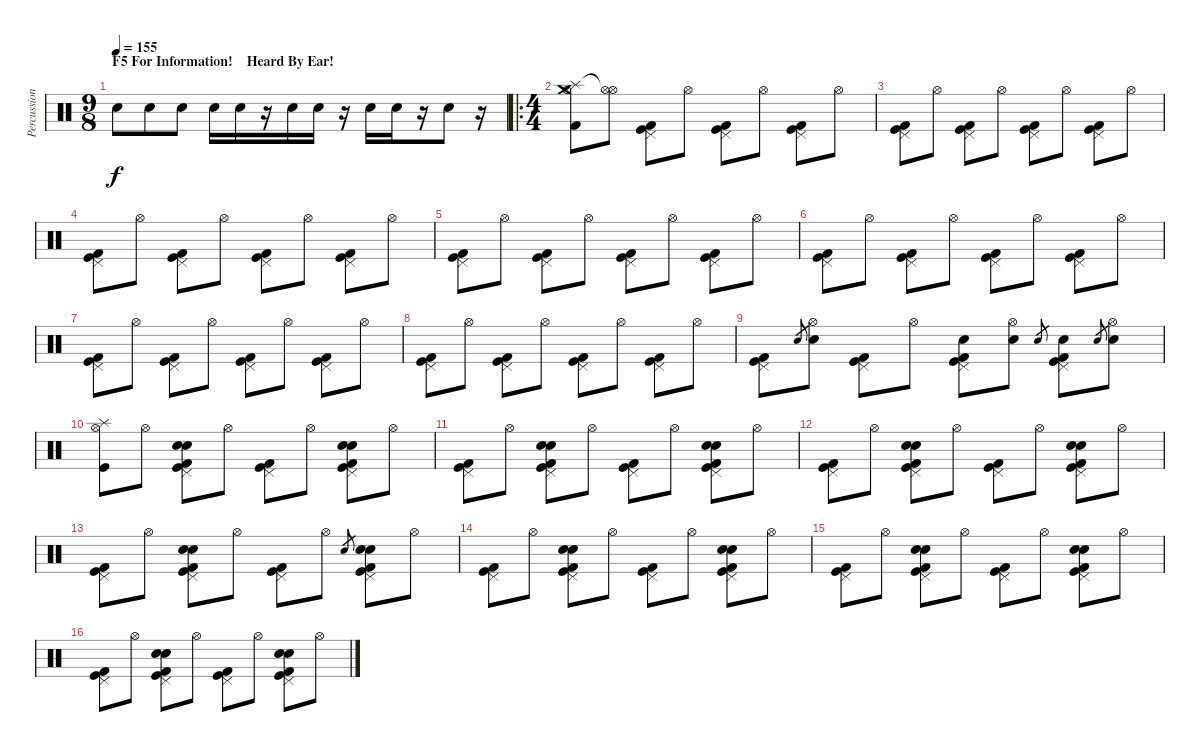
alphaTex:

\track ("Percussion" "Percussion") {instrument percussion}
\staff {score}
\articulation defaults
\ts (9 8)
\section ("" "F5 For Information!    Heard By Ear!")
\tempo 155
\clef neutral
\ks c "Snare (hit) 2".8{dy f} "Snare (hit) 2".8 "Snare (hit) 2".8 "Snare (hit) 2".16 "Snare (hit) 2".16
r.16 "Snare (hit) 2".16 "Snare (hit) 2".16 r.16 "Snare (hit) 2".16 "Snare (hit) 2".16 r.16 "Snare (hit) 2".8 r.16 |
\ro
\ts (4 4)
("Splash (hit)" "Kick (hit) 2" "Hi-Hat (open)" "Crash medium (hit)").8 ("Hi-Hat (open)"{t} "Hi-Hat (open)").8 ("Pedal Hi-Hat (hit)" "Kick (hit)" "Kick (hit) 2").8 "Hi-Hat (open)".8 ("Pedal Hi-Hat (hit)" "Kick (hit)" "Kick (hit) 2").8 "Hi-Hat (open)".8 ("Pedal Hi-Hat (hit)" "Kick (hit)" "Kick (hit) 2").8 "Hi-Hat (open)".8 |
("Pedal Hi-Hat (hit)" "Kick (hit)" "Kick (hit) 2").8 "Hi-Hat (open)".8 ("Pedal Hi-Hat (hit)" "Kick (hit)" "Kick (hit) 2").8 "Hi-Hat (open)".8 ("Pedal Hi-Hat (hit)" "Kick (hit)" "Kick (hit) 2").8 "Hi-Hat (open)".8 ("Pedal Hi-Hat (hit)" "Kick (hit)" "Kick (hit) 2").8 "Hi-Hat (open)".8 |
("Pedal Hi-Hat (hit)" "Kick (hit)" "Kick (hit) 2").8 "Hi-Hat (open)".8 ("Pedal Hi-Hat (hit)" "Kick (hit)" "Kick (hit) 2").8 "Hi-Hat (open)".8 ("Pedal Hi-Hat (hit)" "Kick (hit)" "Kick (hit) 2").8 "Hi-Hat (open)".8 ("Pedal Hi-Hat (hit)" "Kick (hit)" "Kick (hit) 2").8 "Hi-Hat (open)".8 |
("Pedal Hi-Hat (hit)" "Kick (hit)" "Kick (hit) 2").8 "Hi-Hat (open)".8 ("Pedal Hi-Hat (hit)" "Kick (hit)" "Kick (hit) 2").8 "Hi-Hat (open)".8 ("Pedal Hi-Hat (hit)" "Kick (hit)" "Kick (hit) 2").8 "Hi-Hat (open)".8 ("Pedal Hi-Hat (hit)" "Kick (hit)" "Kick (hit) 2").8 "Hi-Hat (open)".8 |
("Pedal Hi-Hat (hit)" "Kick (hit)" "Kick (hit) 2").8 "Hi-Hat (open)".8 ("Pedal Hi-Hat (hit)" "Kick (hit)" "Kick (hit) 2").8 "Hi-Hat (open)".8 ("Pedal Hi-Hat (hit)" "Kick (hit)" "Kick (hit) 2").8 "Hi-Hat (open)".8 ("Pedal Hi-Hat (hit)" "Kick (hit)" "Kick (hit) 2").8 "Hi-Hat (open)".8 |
("Pedal Hi-Hat (hit)" "Kick (hit)" "Kick (hit) 2").8 "Hi-Hat (open)".8 ("Pedal Hi-Hat (hit)" "Kick (hit)" "Kick (hit) 2").8 "Hi-Hat (open)".8 ("Pedal Hi-Hat (hit)" "Kick (hit)" "Kick (hit) 2").8 "Hi-Hat (open)".8 ("Pedal Hi-Hat (hit)" "Kick (hit)" "Kick (hit) 2").8 "Hi-Hat (open)".8 |
("Pedal Hi-Hat (hit)" "Kick (hit)" "Kick (hit) 2").8 "Hi-Hat (open)".8 ("Pedal Hi-Hat (hit)" "Kick (hit)" "Kick (hit) 2").8 "Hi-Hat (open)".8 ("Pedal Hi-Hat (hit)" "Kick (hit)" "Kick (hit) 2").8 "Hi-Hat (open)".8 ("Pedal Hi-Hat (hit)" "Kick (hit)" "Kick (hit) 2").8 "Hi-Hat (open)".8 |
("Pedal Hi-Hat (hit)" "Kick (hit)" "Kick (hit) 2").8 "Snare (hit) 2".8{gr} ("Hi-Hat (open)" "Snare (hit) 2").8 ("Pedal Hi-Hat (hit)" "Kick (hit)" "Kick (hit) 2").8 "Hi-Hat (open)".8 ("Pedal Hi-Hat (hit)" "Kick (hit)" "Kick (hit) 2" "Snare (hit) 2").8 ("Hi-Hat (open)" "Snare (hit) 2").8 "Snare (hit) 2".8{gr} ("Pedal Hi-Hat (hit)" "Kick (hit)" "Kick (hit) 2" "Snare (hit) 2").8 "Snare (hit) 2".8{gr} ("Hi-Hat (open)" "Snare (hit) 2").8 |
("Splash (hit)" "Kick (hit)" "Hi-Hat (open)").8 "Hi-Hat (open)".8 ("Pedal Hi-Hat (hit)" "Kick (hit)" "Kick (hit) 2" "Snare (hit) 2" "Electric Snare (hit)").8 "Hi-Hat (open)".8 ("Pedal Hi-Hat (hit)" "Kick (hit)" "Kick (hit) 2").8 "Hi-Hat (open)".8 ("Pedal Hi-Hat (hit)" "Kick (hit)" "Kick (hit) 2" "Snare (hit) 2" "Electric Snare (hit)").8 "Hi-Hat (open)".8 |
("Pedal Hi-Hat (hit)" "Kick (hit)" "Kick (hit) 2").8 "Hi-Hat (open)".8 ("Pedal Hi-Hat (hit)" "Kick (hit)" "Kick (hit) 2" "Snare (hit) 2" "Electric Snare (hit)").8 "Hi-Hat (open)".8 ("Pedal Hi-Hat (hit)" "Kick (hit)" "Kick (hit) 2").8 "Hi-Hat (open)".8 ("Pedal Hi-Hat (hit)" "Kick (hit)" "Kick (hit) 2" "Snare (hit) 2" "Electric Snare (hit)").8 "Hi-Hat (open)".8 |
("Pedal Hi-Hat (hit)" "Kick (hit)" "Kick (hit) 2").8 "Hi-Hat (open)".8 ("Pedal Hi-Hat (hit)" "Kick (hit)" "Kick (hit) 2" "Snare (hit) 2" "Electric Snare (hit)").8 "Hi-Hat (open)".8 ("Pedal Hi-Hat (hit)" "Kick (hit)" "Kick (hit) 2").8 "Hi-Hat (open)".8 ("Pedal Hi-Hat (hit)" "Kick (hit)" "Kick (hit) 2" "Snare (hit) 2" "Electric Snare (hit)").8 "Hi-Hat (open)".8 |
("Pedal Hi-Hat (hit)" "Kick (hit)" "Kick (hit) 2").8 "Hi-Hat (open)".8 ("Pedal Hi-Hat (hit)" "Kick (hit)" "Kick (hit) 2" "Snare (hit) 2" "Electric Snare (hit)").8 "Hi-Hat (open)".8 ("Pedal Hi-Hat (hit)" "Kick (hit)" "Kick (hit) 2").8 "Hi-Hat (open)".8 "Snare (hit) 2".8{gr} ("Pedal Hi-Hat (hit)" "Kick (hit)" "Kick (hit) 2" "Snare (hit) 2" "Electric Snare (hit)").8 "Hi-Hat (open)".8 |
("Pedal Hi-Hat (hit)" "Kick (hit)" "Kick (hit) 2").8 "Hi-Hat (open)".8 ("Pedal Hi-Hat (hit)" "Kick (hit)" "Kick (hit) 2" "Snare (hit) 2" "Electric Snare (hit)").8 "Hi-Hat (open)".8 ("Pedal Hi-Hat (hit)" "Kick (hit)" "Kick (hit) 2").8 "Hi-Hat (open)".8 ("Pedal Hi-Hat (hit)" "Kick (hit)" "Kick (hit) 2" "Snare (hit) 2" "Electric Snare (hit)").8 "Hi-Hat (open)".8 |
("Pedal Hi-Hat (hit)" "Kick (hit)" "Kick (hit) 2").8 "Hi-Hat (open)".8 ("Pedal Hi-Hat (hit)" "Kick (hit)" "Kick (hit) 2" "Snare (hit) 2" "Electric Snare (hit)").8 "Hi-Hat (open)".8 ("Pedal Hi-Hat (hit)" "Kick (hit)" "Kick (hit) 2").8 "Hi-Hat (open)".8 ("Pedal Hi-Hat (hit)" "Kick (hit)" "Kick (hit) 2" "Snare (hit) 2" "Electric Snare (hit)").8 "Hi-Hat (open)".8 |
("Pedal Hi-Hat (hit)" "Kick (hit)" "Kick (hit) 2").8 "Hi-Hat (open)".8 ("Pedal Hi-Hat (hit)" "Kick (hit)" "Kick (hit) 2" "Snare (hit) 2" "Electric Snare (hit)").8 "Hi-Hat (open)".8 ("Pedal Hi-Hat (hit)" "Kick (hit)" "Kick (hit) 2").8 "Hi-Hat (open)".8 ("Pedal Hi-Hat (hit)" "Kick (hit)" "Kick (hit) 2" "Snare (hit) 2" "Electric Snare (hit)").8 "Hi-Hat (open)".8
